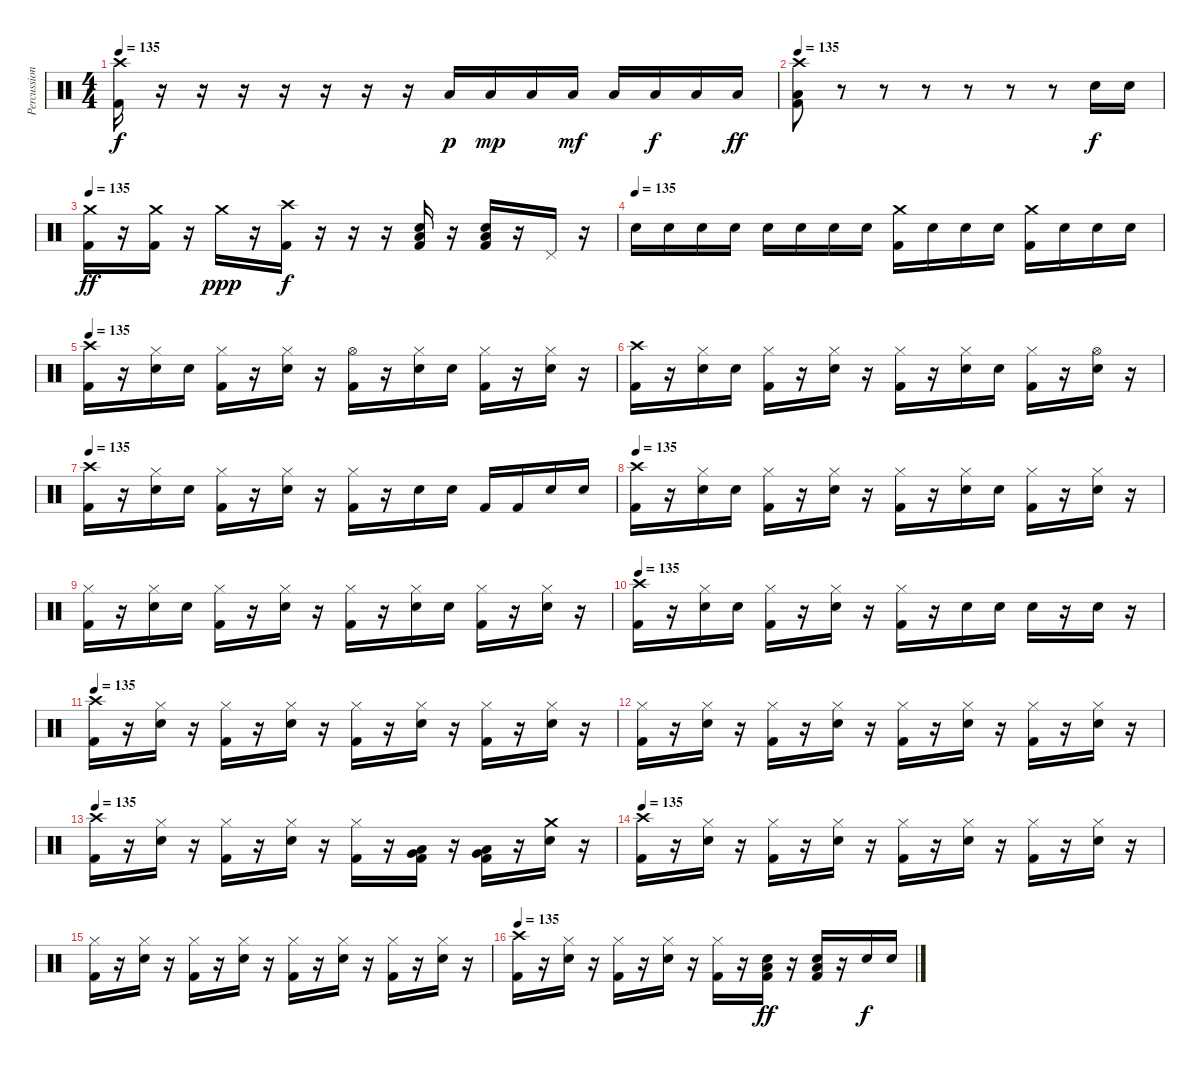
\track ("Percussion" "Percussion") {instrument percussion}
\staff {score}
\articulation defaults
\ts (4 4)
\tempo 135
\clef neutral
\ks c
("Crash high (hit)" "Kick (hit) 2").16{dy f} r.16 r.16 r.16 r.16 r.16 r.16 r.16 "Low Floor Tom (hit)".16{dy p} "Low Floor Tom (hit)".16{dy mp} "Low Floor Tom (hit)".16 "Low Floor Tom (hit)".16{dy mf} "Low Floor Tom (hit)".16 "Low Floor Tom (hit)".16{dy f} "Low Floor Tom (hit)".16 "Low Floor Tom (hit)".16{dy ff} |
\tempo 135
("Crash high (hit)" "Low Floor Tom (hit)" "Kick (hit) 2").8 r.8 r.8 r.8 r.8 r.8 r.8 "Snare (hit) 2".16{dy f} "Snare (hit) 2".16 |
\tempo 135
("Crash medium (hit)" "Kick (hit) 2").16{dy ff} r.16 ("Crash medium (hit)" "Kick (hit) 2").16 r.16 "Crash medium (hit)".16{dy ppp} r.16 ("Crash high (hit)" "Kick (hit) 2").16{dy f} r.16 r.16 r.16 ("Low Floor Tom (hit)" "Snare (hit) 2" "Kick (hit) 2").16 r.16 ("Low Floor Tom (hit)" "Snare (hit) 2" "Kick (hit) 2").16 r.16 "Pedal Hi-Hat (hit)".16 r.16 |
\tempo (135)
"Snare (hit) 2".16 "Snare (hit) 2".16 "Snare (hit) 2".16 "Snare (hit) 2".16 "Snare (hit) 2".16 "Snare (hit) 2".16 "Snare (hit) 2".16 "Snare (hit) 2".16 ("Crash medium (hit)" "Kick (hit) 2").16 "Snare (hit) 2".16 "Snare (hit) 2".16 "Snare (hit) 2".16 ("Crash medium (hit)" "Kick (hit) 2").16 "Snare (hit) 2".16 "Snare (hit) 2".16 "Snare (hit) 2".16 |
\tempo 135
("Crash high (hit)" "Kick (hit) 2").16 r.16 ("Hi-Hat (closed)" "Snare (hit) 2").16 "Snare (hit) 2".16 ("Hi-Hat (closed)" "Kick (hit) 2").16 r.16 ("Hi-Hat (closed)" "Snare (hit) 2").16 r.16 ("Hi-Hat (open)" "Kick (hit) 2").16 r.16 ("Hi-Hat (closed)" "Snare (hit) 2").16 "Snare (hit) 2".16 ("Hi-Hat (closed)" "Kick (hit) 2").16 r.16 ("Hi-Hat (closed)" "Snare (hit) 2").16 r.16 |
("Crash high (hit)" "Kick (hit) 2").16 r.16 ("Hi-Hat (closed)" "Snare (hit) 2").16 "Snare (hit) 2".16 ("Hi-Hat (closed)" "Kick (hit) 2").16 r.16 ("Hi-Hat (closed)" "Snare (hit) 2").16 r.16 ("Hi-Hat (closed)" "Kick (hit) 2").16 r.16 ("Hi-Hat (closed)" "Snare (hit) 2").16 "Snare (hit) 2".16 ("Hi-Hat (closed)" "Kick (hit) 2").16 r.16 ("Hi-Hat (open)" "Snare (hit) 2").16 r.16 |
\tempo 135
("Crash high (hit)" "Kick (hit) 2").16 r.16 ("Hi-Hat (closed)" "Snare (hit) 2").16 "Snare (hit) 2".16 ("Hi-Hat (closed)" "Kick (hit) 2").16 r.16 ("Hi-Hat (closed)" "Snare (hit) 2").16 r.16 ("Hi-Hat (closed)" "Kick (hit) 2").16 r.16 "Snare (hit) 2".16 "Snare (hit) 2".16 "Kick (hit) 2".16 "Kick (hit) 2".16 "Snare (hit) 2".16 "Snare (hit) 2".16 |
\tempo 135
("Crash high (hit)" "Kick (hit) 2").16 r.16 ("Hi-Hat (closed)" "Snare (hit) 2").16 "Snare (hit) 2".16 ("Hi-Hat (closed)" "Kick (hit) 2").16 r.16 ("Hi-Hat (closed)" "Snare (hit) 2").16 r.16 ("Hi-Hat (closed)" "Kick (hit) 2").16 r.16 ("Hi-Hat (closed)" "Snare (hit) 2").16 "Snare (hit) 2".16 ("Hi-Hat (closed)" "Kick (hit) 2").16 r.16 ("Hi-Hat (closed)" "Snare (hit) 2").16 r.16 |
("Hi-Hat (closed)" "Kick (hit) 2").16 r.16 ("Hi-Hat (closed)" "Snare (hit) 2").16 "Snare (hit) 2".16 ("Hi-Hat (closed)" "Kick (hit) 2").16 r.16 ("Hi-Hat (closed)" "Snare (hit) 2").16 r.16 ("Hi-Hat (closed)" "Kick (hit) 2").16 r.16 ("Hi-Hat (closed)" "Snare (hit) 2").16 "Snare (hit) 2".16 ("Hi-Hat (closed)" "Kick (hit) 2").16 r.16 ("Hi-Hat (closed)" "Snare (hit) 2").16 r.16 |
\tempo 135
("Crash high (hit)" "Kick (hit) 2").16 r.16 ("Hi-Hat (closed)" "Snare (hit) 2").16 "Snare (hit) 2".16 ("Hi-Hat (closed)" "Kick (hit) 2").16 r.16 ("Hi-Hat (closed)" "Snare (hit) 2").16 r.16 ("Hi-Hat (closed)" "Kick (hit) 2").16 r.16 "Snare (hit) 2".16 "Snare (hit) 2".16 "Snare (hit) 2".16 r.16 "Snare (hit) 2".16 r.16 |
\tempo 135
("Crash high (hit)" "Kick (hit) 2").16 r.16 ("Hi-Hat (closed)" "Snare (hit) 2").16 r.16 ("Hi-Hat (closed)" "Kick (hit) 2").16 r.16 ("Hi-Hat (closed)" "Snare (hit) 2").16 r.16 ("Hi-Hat (closed)" "Kick (hit) 2").16 r.16 ("Hi-Hat (closed)" "Snare (hit) 2").16 r.16 ("Hi-Hat (closed)" "Kick (hit) 2").16 r.16 ("Hi-Hat (closed)" "Snare (hit) 2").16 r.16 |
("Hi-Hat (closed)" "Kick (hit) 2").16 r.16 ("Hi-Hat (closed)" "Snare (hit) 2").16 r.16 ("Hi-Hat (closed)" "Kick (hit) 2").16 r.16 ("Hi-Hat (closed)" "Snare (hit) 2").16 r.16 ("Hi-Hat (closed)" "Kick (hit) 2").16 r.16 ("Hi-Hat (closed)" "Snare (hit) 2").16 r.16 ("Hi-Hat (closed)" "Kick (hit) 2").16 r.16 ("Hi-Hat (closed)" "Snare (hit) 2").16 r.16 |
\tempo 135
("Crash high (hit)" "Kick (hit) 2").16 r.16 ("Hi-Hat (closed)" "Snare (hit) 2").16 r.16 ("Hi-Hat (closed)" "Kick (hit) 2").16 r.16 ("Hi-Hat (closed)" "Snare (hit) 2").16 r.16 ("Hi-Hat (closed)" "Kick (hit) 2").16 r.16 ("Low Tom (hit)" "Very Low Tom (hit)" "Kick (hit) 2").16 r.16 ("Low Tom (hit)" "Very Low Tom (hit)" "Kick (hit) 2").16 r.16 ("Crash medium (hit)" "Snare (hit) 2").16 r.16 |
\tempo 135
("Crash high (hit)" "Kick (hit) 2").16 r.16 ("Hi-Hat (closed)" "Snare (hit) 2").16 r.16 ("Hi-Hat (closed)" "Kick (hit) 2").16 r.16 ("Hi-Hat (closed)" "Snare (hit) 2").16 r.16 ("Hi-Hat (closed)" "Kick (hit) 2").16 r.16 ("Hi-Hat (closed)" "Snare (hit) 2").16 r.16 ("Hi-Hat (closed)" "Kick (hit) 2").16 r.16 ("Hi-Hat (closed)" "Snare (hit) 2").16 r.16 |
("Hi-Hat (closed)" "Kick (hit) 2").16 r.16 ("Hi-Hat (closed)" "Snare (hit) 2").16 r.16 ("Hi-Hat (closed)" "Kick (hit) 2").16 r.16 ("Hi-Hat (closed)" "Snare (hit) 2").16 r.16 ("Hi-Hat (closed)" "Kick (hit) 2").16 r.16 ("Hi-Hat (closed)" "Snare (hit) 2").16 r.16 ("Hi-Hat (closed)" "Kick (hit) 2").16 r.16 ("Hi-Hat (closed)" "Snare (hit) 2").16 r.16 |
\tempo 135
("Crash high (hit)" "Kick (hit) 2").16 r.16 ("Hi-Hat (closed)" "Snare (hit) 2").16 r.16 ("Hi-Hat (closed)" "Kick (hit) 2").16 r.16 ("Hi-Hat (closed)" "Snare (hit) 2").16 r.16 ("Hi-Hat (closed)" "Kick (hit) 2").16 r.16 ("Low Floor Tom (hit)" "Snare (hit) 2" "Kick (hit) 2").16{dy ff} r.16 ("Low Floor Tom (hit)" "Snare (hit) 2" "Kick (hit) 2").16 r.16 "Snare (hit) 2".16{dy f} "Snare (hit) 2".16
